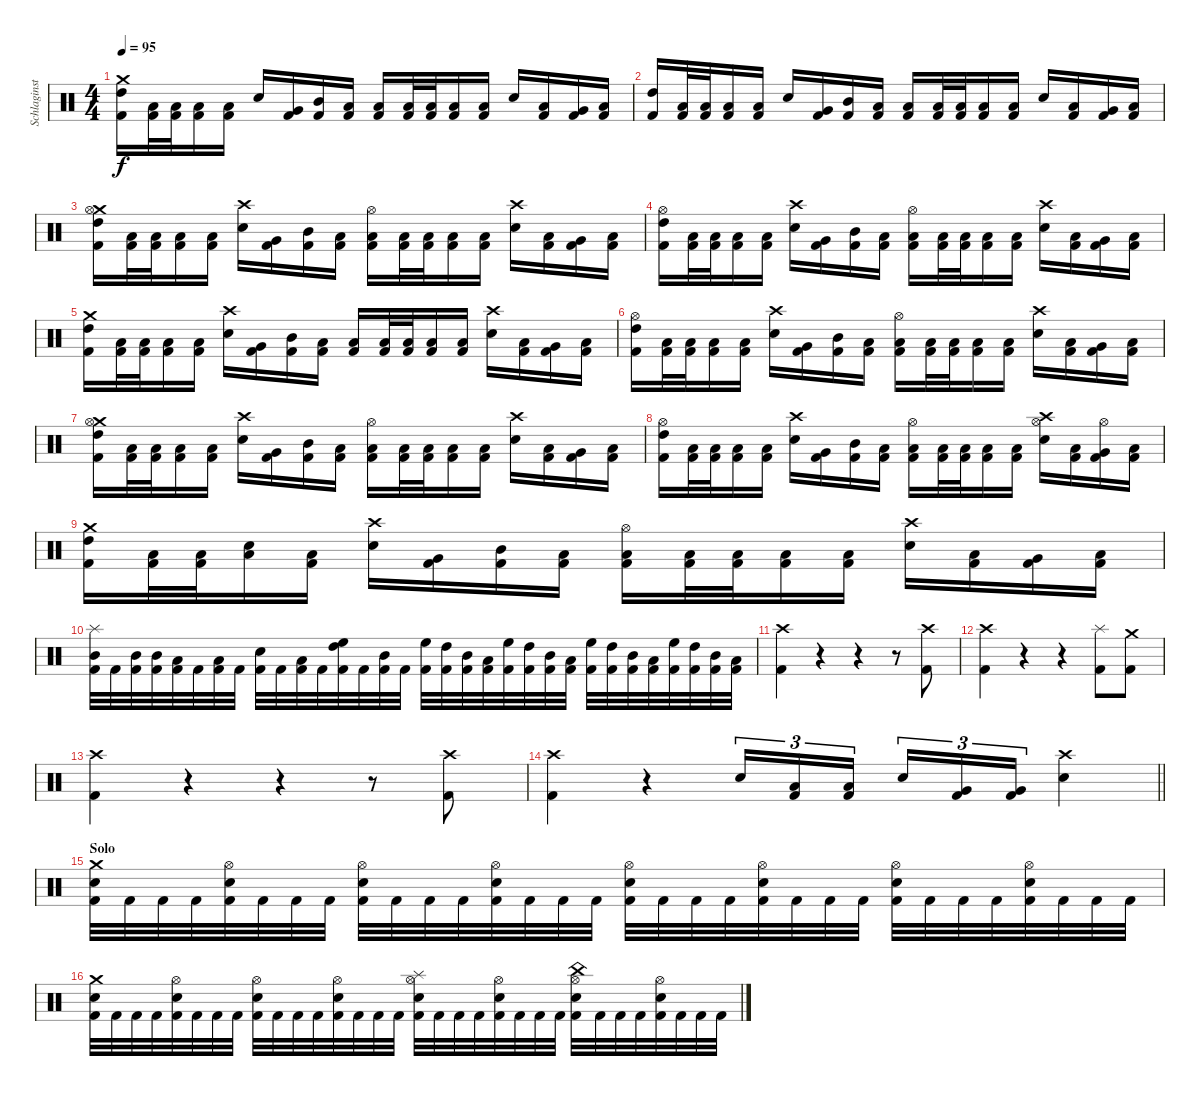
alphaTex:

\track ("Schlaginstrumente - Auswahl" "Schlaginst") {instrument percussion}
\staff {score}
\articulation defaults
\ts (4 4)
\tempo 95
\clef neutral
\ks c
("Crash medium (hit)" "High Tom (hit)" "Kick (hit) 2").16{dy f} ("Low Tom (hit)" "Kick (hit) 2").32 ("Low Tom (hit)" "Kick (hit) 2").32 ("Low Tom (hit)" "Kick (hit) 2").16 ("Low Tom (hit)" "Kick (hit) 2").16 "Snare (hit) 2".16 ("Very Low Tom (hit)" "Kick (hit) 2").16 ("Mid Tom (hit)" "Kick (hit) 2").16 ("Low Tom (hit)" "Kick (hit) 2").16 ("Low Floor Tom (hit)" "Kick (hit) 2").16 ("Low Floor Tom (hit)" "Kick (hit) 2").32 ("Low Floor Tom (hit)" "Kick (hit) 2").32 ("Low Floor Tom (hit)" "Kick (hit) 2").16 ("Low Floor Tom (hit)" "Kick (hit) 2").16 "Snare (hit) 2".16 ("Low Floor Tom (hit)" "Kick (hit) 2").16 ("Very Low Tom (hit)" "Kick (hit) 2").16 ("Low Floor Tom (hit)" "Kick (hit) 2").16 |
("High Tom (hit)" "Kick (hit) 2").16 ("Low Tom (hit)" "Kick (hit) 2").32 ("Low Tom (hit)" "Kick (hit) 2").32 ("Low Tom (hit)" "Kick (hit) 2").16 ("Low Tom (hit)" "Kick (hit) 2").16 "Snare (hit) 2".16 ("Very Low Tom (hit)" "Kick (hit) 2").16 ("Mid Tom (hit)" "Kick (hit) 2").16 ("Low Tom (hit)" "Kick (hit) 2").16 ("Low Floor Tom (hit)" "Kick (hit) 2").16 ("Low Floor Tom (hit)" "Kick (hit) 2").32 ("Low Floor Tom (hit)" "Kick (hit) 2").32 ("Low Floor Tom (hit)" "Kick (hit) 2").16 ("Low Floor Tom (hit)" "Kick (hit) 2").16 "Snare (hit) 2".16 ("Low Floor Tom (hit)" "Kick (hit) 2").16 ("Very Low Tom (hit)" "Kick (hit) 2").16 ("Low Floor Tom (hit)" "Kick (hit) 2").16 |
("Crash medium (hit)" "Hi-Hat (open)" "High Tom (hit)" "Kick (hit) 2").16 ("Low Tom (hit)" "Kick (hit) 2").32 ("Low Tom (hit)" "Kick (hit) 2").32 ("Low Tom (hit)" "Kick (hit) 2").16 ("Low Tom (hit)" "Kick (hit) 2").16 ("Crash high (hit)" "Snare (hit) 2").16 ("Very Low Tom (hit)" "Kick (hit) 2").16 ("Mid Tom (hit)" "Kick (hit) 2").16 ("Low Tom (hit)" "Kick (hit) 2").16 ("Hi-Hat (open)" "Low Floor Tom (hit)" "Kick (hit) 2").16 ("Low Floor Tom (hit)" "Kick (hit) 2").32 ("Low Floor Tom (hit)" "Kick (hit) 2").32 ("Low Floor Tom (hit)" "Kick (hit) 2").16 ("Low Floor Tom (hit)" "Kick (hit) 2").16 ("Crash high (hit)" "Snare (hit) 2").16 ("Low Floor Tom (hit)" "Kick (hit) 2").16 ("Very Low Tom (hit)" "Kick (hit) 2").16 ("Low Floor Tom (hit)" "Kick (hit) 2").16 |
("Hi-Hat (open)" "High Tom (hit)" "Kick (hit) 2").16 ("Low Tom (hit)" "Kick (hit) 2").32 ("Low Tom (hit)" "Kick (hit) 2").32 ("Low Tom (hit)" "Kick (hit) 2").16 ("Low Tom (hit)" "Kick (hit) 2").16 ("Crash high (hit)" "Snare (hit) 2").16 ("Very Low Tom (hit)" "Kick (hit) 2").16 ("Mid Tom (hit)" "Kick (hit) 2").16 ("Low Tom (hit)" "Kick (hit) 2").16 ("Hi-Hat (open)" "Low Floor Tom (hit)" "Kick (hit) 2").16 ("Low Floor Tom (hit)" "Kick (hit) 2").32 ("Low Floor Tom (hit)" "Kick (hit) 2").32 ("Low Floor Tom (hit)" "Kick (hit) 2").16 ("Low Floor Tom (hit)" "Kick (hit) 2").16 ("Crash high (hit)" "Snare (hit) 2").16 ("Low Floor Tom (hit)" "Kick (hit) 2").16 ("Very Low Tom (hit)" "Kick (hit) 2").16 ("Low Floor Tom (hit)" "Kick (hit) 2").16 |
("Crash medium (hit)" "High Tom (hit)" "Kick (hit) 2").16 ("Low Tom (hit)" "Kick (hit) 2").32 ("Low Tom (hit)" "Kick (hit) 2").32 ("Low Tom (hit)" "Kick (hit) 2").16 ("Low Tom (hit)" "Kick (hit) 2").16 ("Crash high (hit)" "Snare (hit) 2").16 ("Very Low Tom (hit)" "Kick (hit) 2").16 ("Mid Tom (hit)" "Kick (hit) 2").16 ("Low Tom (hit)" "Kick (hit) 2").16 ("Low Floor Tom (hit)" "Kick (hit) 2").16 ("Low Floor Tom (hit)" "Kick (hit) 2").32 ("Low Floor Tom (hit)" "Kick (hit) 2").32 ("Low Floor Tom (hit)" "Kick (hit) 2").16 ("Low Floor Tom (hit)" "Kick (hit) 2").16 ("Crash high (hit)" "Snare (hit) 2").16 ("Low Floor Tom (hit)" "Kick (hit) 2").16 ("Very Low Tom (hit)" "Kick (hit) 2").16 ("Low Floor Tom (hit)" "Kick (hit) 2").16 |
("Hi-Hat (open)" "High Tom (hit)" "Kick (hit) 2").16 ("Low Tom (hit)" "Kick (hit) 2").32 ("Low Tom (hit)" "Kick (hit) 2").32 ("Low Tom (hit)" "Kick (hit) 2").16 ("Low Tom (hit)" "Kick (hit) 2").16 ("Crash high (hit)" "Snare (hit) 2").16 ("Very Low Tom (hit)" "Kick (hit) 2").16 ("Mid Tom (hit)" "Kick (hit) 2").16 ("Low Tom (hit)" "Kick (hit) 2").16 ("Hi-Hat (open)" "Low Floor Tom (hit)" "Kick (hit) 2").16 ("Low Floor Tom (hit)" "Kick (hit) 2").32 ("Low Floor Tom (hit)" "Kick (hit) 2").32 ("Low Floor Tom (hit)" "Kick (hit) 2").16 ("Low Floor Tom (hit)" "Kick (hit) 2").16 ("Crash high (hit)" "Snare (hit) 2").16 ("Low Floor Tom (hit)" "Kick (hit) 2").16 ("Very Low Tom (hit)" "Kick (hit) 2").16 ("Low Floor Tom (hit)" "Kick (hit) 2").16 |
("Crash medium (hit)" "Hi-Hat (open)" "High Tom (hit)" "Kick (hit) 2").16 ("Low Tom (hit)" "Kick (hit) 2").32 ("Low Tom (hit)" "Kick (hit) 2").32 ("Low Tom (hit)" "Kick (hit) 2").16 ("Low Tom (hit)" "Kick (hit) 2").16 ("Crash high (hit)" "Snare (hit) 2").16 ("Very Low Tom (hit)" "Kick (hit) 2").16 ("Mid Tom (hit)" "Kick (hit) 2").16 ("Low Tom (hit)" "Kick (hit) 2").16 ("Hi-Hat (open)" "Low Floor Tom (hit)" "Kick (hit) 2").16 ("Low Floor Tom (hit)" "Kick (hit) 2").32 ("Low Floor Tom (hit)" "Kick (hit) 2").32 ("Low Floor Tom (hit)" "Kick (hit) 2").16 ("Low Floor Tom (hit)" "Kick (hit) 2").16 ("Crash high (hit)" "Snare (hit) 2").16 ("Low Floor Tom (hit)" "Kick (hit) 2").16 ("Very Low Tom (hit)" "Kick (hit) 2").16 ("Low Floor Tom (hit)" "Kick (hit) 2").16 |
("Hi-Hat (open)" "High Tom (hit)" "Kick (hit) 2").16 ("Low Tom (hit)" "Kick (hit) 2").32 ("Low Tom (hit)" "Kick (hit) 2").32 ("Low Tom (hit)" "Kick (hit) 2").16 ("Low Tom (hit)" "Kick (hit) 2").16 ("Crash high (hit)" "Snare (hit) 2").16 ("Very Low Tom (hit)" "Kick (hit) 2").16 ("Mid Tom (hit)" "Kick (hit) 2").16 ("Low Tom (hit)" "Kick (hit) 2").16 ("Hi-Hat (open)" "Low Floor Tom (hit)" "Kick (hit) 2").16 ("Low Floor Tom (hit)" "Kick (hit) 2").32 ("Low Floor Tom (hit)" "Kick (hit) 2").32 ("Low Floor Tom (hit)" "Kick (hit) 2").16 ("Low Floor Tom (hit)" "Kick (hit) 2").16 ("Hi-Hat (open)" "Crash high (hit)" "Snare (hit) 2").16 ("Low Floor Tom (hit)" "Kick (hit) 2").16 ("Hi-Hat (open)" "Very Low Tom (hit)" "Kick (hit) 2").16 ("Low Floor Tom (hit)" "Kick (hit) 2").16 |
("Crash medium (hit)" "High Tom (hit)" "Kick (hit) 2").16 ("Low Tom (hit)" "Kick (hit) 2").32 ("Low Tom (hit)" "Kick (hit) 2").32 ("Low Tom (hit)" "Snare (hit) 2").16 ("Low Tom (hit)" "Kick (hit) 2").16 ("Crash high (hit)" "Snare (hit) 2").16 ("Very Low Tom (hit)" "Kick (hit) 2").16 ("Mid Tom (hit)" "Kick (hit) 2").16 ("Low Tom (hit)" "Kick (hit) 2").16 ("Hi-Hat (open)" "Low Floor Tom (hit)" "Kick (hit) 2").16 ("Low Floor Tom (hit)" "Kick (hit) 2").32 ("Low Floor Tom (hit)" "Kick (hit) 2").32 ("Low Floor Tom (hit)" "Kick (hit) 2").16 ("Low Floor Tom (hit)" "Kick (hit) 2").16 ("Crash high (hit)" "Snare (hit) 2").16 ("Low Floor Tom (hit)" "Kick (hit) 2").16 ("Very Low Tom (hit)" "Kick (hit) 2").16 ("Low Floor Tom (hit)" "Kick (hit) 2").16 |
("Splash (hit)" "Mid Tom (hit)" "Kick (hit) 2").32 "Kick (hit) 2".32 ("Mid Tom (hit)" "Kick (hit) 2").32 ("Mid Tom (hit)" "Kick (hit) 2").32 ("Low Tom (hit)" "Kick (hit) 2").32 "Kick (hit) 2".32 ("Low Tom (hit)" "Kick (hit) 2").32 "Kick (hit) 2".32 ("Snare (hit) 2" "Kick (hit) 2").32 "Kick (hit) 2".32 ("Low Tom (hit)" "Kick (hit) 2").32 "Kick (hit) 2".32 ("High Floor Tom (hit)" "High Tom (hit)" "Kick (hit) 2").32 "Kick (hit) 2".32 ("Mid Tom (hit)" "Kick (hit) 2").32 "Kick (hit) 2".32 ("High Floor Tom (hit)" "Kick (hit) 2").32 ("High Tom (hit)" "Kick (hit) 2").32 ("Mid Tom (hit)" "Kick (hit) 2").32 ("Low Tom (hit)" "Kick (hit) 2").32 ("High Floor Tom (hit)" "Kick (hit) 2").32 ("High Tom (hit)" "Kick (hit) 2").32 ("Mid Tom (hit)" "Kick (hit) 2").32 ("Low Tom (hit)" "Kick (hit) 2").32 ("High Floor Tom (hit)" "Kick (hit) 2").32 ("High Tom (hit)" "Kick (hit) 2").32 ("Mid Tom (hit)" "Kick (hit) 2").32 ("Low Tom (hit)" "Kick (hit) 2").32 ("High Floor Tom (hit)" "Kick (hit) 2").32 ("High Tom (hit)" "Kick (hit) 2").32 ("Mid Tom (hit)" "Kick (hit) 2").32 ("Low Tom (hit)" "Kick (hit) 2").32 |
("Kick (hit) 2" "Crash high (hit)").4 r.4 r.4 r.8 ("Kick (hit) 2" "Crash high (hit)").8 |
("Kick (hit) 2" "Crash high (hit)").4 r.4 r.4 ("Splash (hit)" "Kick (hit) 2").8 ("Crash medium (hit)" "Kick (hit) 2").8 |
("Crash high (hit)" "Kick (hit) 2").4 r.4 r.4 r.8 ("Crash high (hit)" "Kick (hit) 2").8 |
\barLineRight lightlight
("Kick (hit) 2" "Crash high (hit)").4 r.4 "Snare (hit) 2".16{tu (3 2)} ("Low Tom (hit)" "Kick (hit) 2").16{tu (3 2)} ("Low Tom (hit)" "Kick (hit) 2").16{tu (3 2) beam splitsecondary} "Snare (hit) 2".16{tu (3 2)} ("Very Low Tom (hit)" "Kick (hit) 2").16{tu (3 2)} ("Very Low Tom (hit)" "Kick (hit) 2").16{tu (3 2)} ("Snare (hit) 2" "Crash high (hit)").4 |
\section ("" "Solo")
("Crash medium (hit)" "Snare (hit) 2" "Kick (hit) 2").32 "Kick (hit) 2".32 "Kick (hit) 2".32 "Kick (hit) 2".32 ("Snare (hit) 2" "Hi-Hat (open)" "Kick (hit) 2").32 "Kick (hit) 2".32 "Kick (hit) 2".32 "Kick (hit) 2".32 ("Snare (hit) 2" "Hi-Hat (open)" "Kick (hit) 2").32 "Kick (hit) 2".32 "Kick (hit) 2".32 "Kick (hit) 2".32 ("Snare (hit) 2" "Hi-Hat (open)" "Kick (hit) 2").32 "Kick (hit) 2".32 "Kick (hit) 2".32 "Kick (hit) 2".32 ("Snare (hit) 2" "Hi-Hat (open)" "Kick (hit) 2").32 "Kick (hit) 2".32 "Kick (hit) 2".32 "Kick (hit) 2".32 ("Snare (hit) 2" "Hi-Hat (open)" "Kick (hit) 2").32 "Kick (hit) 2".32 "Kick (hit) 2".32 "Kick (hit) 2".32 ("Snare (hit) 2" "Hi-Hat (open)" "Kick (hit) 2").32 "Kick (hit) 2".32 "Kick (hit) 2".32 "Kick (hit) 2".32 ("Snare (hit) 2" "Hi-Hat (open)" "Kick (hit) 2").32 "Kick (hit) 2".32 "Kick (hit) 2".32 "Kick (hit) 2".32 |
("Crash medium (hit)" "Snare (hit) 2" "Kick (hit) 2").32 "Kick (hit) 2".32 "Kick (hit) 2".32 "Kick (hit) 2".32 ("Snare (hit) 2" "Hi-Hat (open)" "Kick (hit) 2").32 "Kick (hit) 2".32 "Kick (hit) 2".32 "Kick (hit) 2".32 ("Snare (hit) 2" "Hi-Hat (open)" "Kick (hit) 2").32 "Kick (hit) 2".32 "Kick (hit) 2".32 "Kick (hit) 2".32 ("Snare (hit) 2" "Hi-Hat (open)" "Kick (hit) 2").32 "Kick (hit) 2".32 "Kick (hit) 2".32 "Kick (hit) 2".32 ("Splash (hit)" "Snare (hit) 2" "Hi-Hat (open)" "Kick (hit) 2").32 "Kick (hit) 2".32 "Kick (hit) 2".32 "Kick (hit) 2".32 ("Snare (hit) 2" "Hi-Hat (open)" "Kick (hit) 2").32 "Kick (hit) 2".32 "Kick (hit) 2".32 "Kick (hit) 2".32 ("China (hit)" "Snare (hit) 2" "Hi-Hat (open)" "Kick (hit) 2").32 "Kick (hit) 2".32 "Kick (hit) 2".32 "Kick (hit) 2".32 ("Snare (hit) 2" "Hi-Hat (open)" "Kick (hit) 2").32 "Kick (hit) 2".32 "Kick (hit) 2".32 "Kick (hit) 2".32
